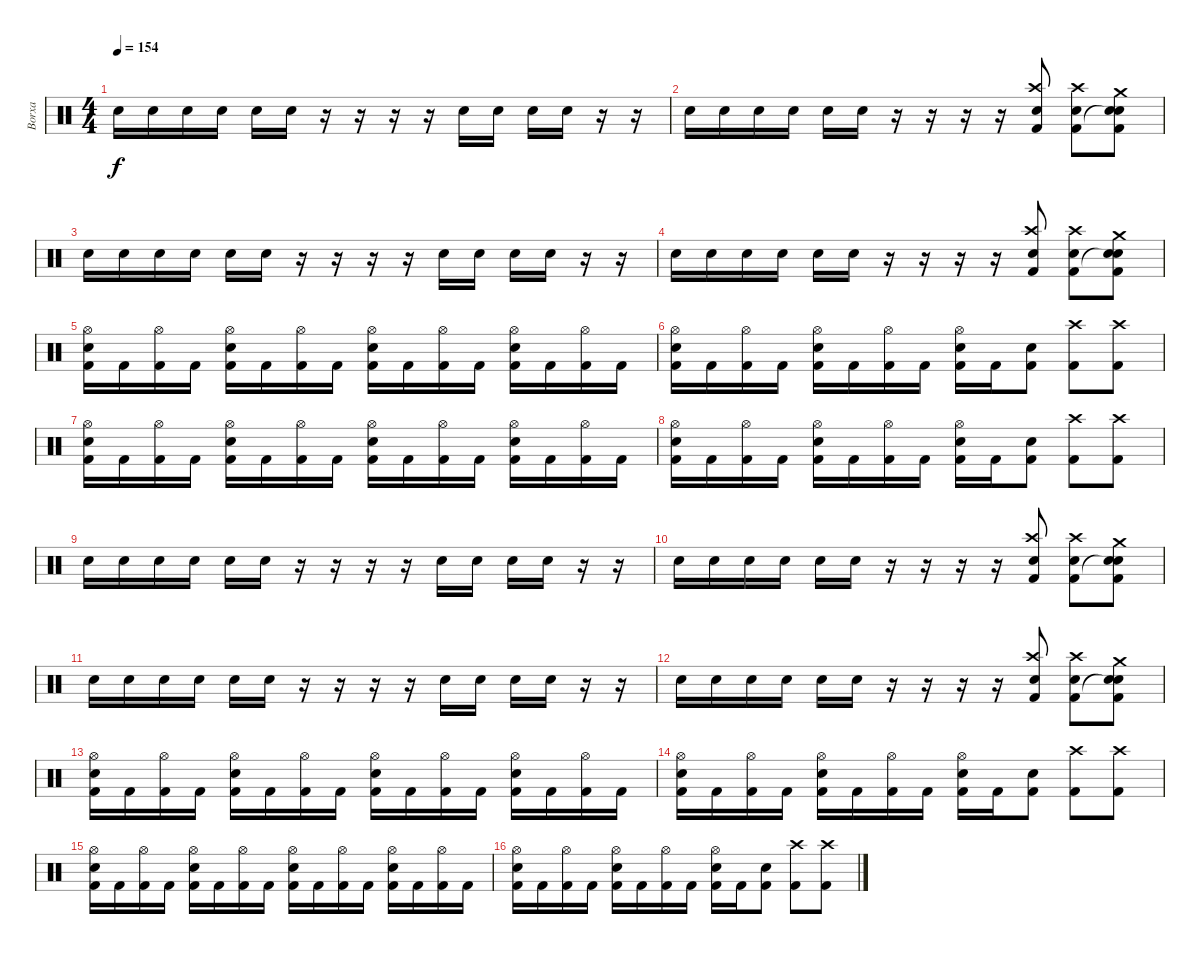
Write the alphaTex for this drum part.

\track ("Borxa" "Borxa") {instrument percussion}
\staff {score}
\articulation defaults
\ts (4 4)
\tempo 154
\clef neutral
\ks c "Snare (hit) 2".16{dy f} "Snare (hit) 2".16 "Snare (hit) 2".16 "Snare (hit) 2".16 "Snare (hit) 2".16 "Snare (hit) 2".16
r.16 r.16 r.16 r.16 "Snare (hit) 2".16 "Snare (hit) 2".16 "Snare (hit) 2".16 "Snare (hit) 2".16 r.16 r.16 |
"Snare (hit) 2".16 "Snare (hit) 2".16 "Snare (hit) 2".16 "Snare (hit) 2".16 "Snare (hit) 2".16 "Snare (hit) 2".16 r.16 r.16 r.16 r.16 ("Snare (hit) 2" "Crash high (hit)" "Kick (hit) 2").8 ("Snare (hit) 2" "Crash high (hit)" "Kick (hit) 2").8 ("Crash medium (hit)" "Snare (hit) 2" "Snare (hit)"{t} "Kick (hit) 2").8 |
"Snare (hit) 2".16 "Snare (hit) 2".16 "Snare (hit) 2".16 "Snare (hit) 2".16 "Snare (hit) 2".16 "Snare (hit) 2".16 r.16 r.16 r.16 r.16 "Snare (hit) 2".16 "Snare (hit) 2".16 "Snare (hit) 2".16 "Snare (hit) 2".16 r.16 r.16 |
"Snare (hit) 2".16 "Snare (hit) 2".16 "Snare (hit) 2".16 "Snare (hit) 2".16 "Snare (hit) 2".16 "Snare (hit) 2".16 r.16 r.16 r.16 r.16 ("Snare (hit) 2" "Crash high (hit)" "Kick (hit) 2").8 ("Snare (hit) 2" "Crash high (hit)" "Kick (hit) 2").8 ("Crash medium (hit)" "Snare (hit) 2" "Snare (hit)"{t} "Kick (hit) 2").8 |
("Hi-Hat (open)" "Snare (hit) 2" "Kick (hit) 2").16 "Kick (hit) 2".16 ("Hi-Hat (open)" "Kick (hit) 2").16 "Kick (hit) 2".16 ("Hi-Hat (open)" "Snare (hit) 2" "Kick (hit) 2").16 "Kick (hit) 2".16 ("Hi-Hat (open)" "Kick (hit) 2").16 "Kick (hit) 2".16 ("Hi-Hat (open)" "Snare (hit) 2" "Kick (hit) 2").16 "Kick (hit) 2".16 ("Hi-Hat (open)" "Kick (hit) 2").16 "Kick (hit) 2".16 ("Hi-Hat (open)" "Snare (hit) 2" "Kick (hit) 2").16 "Kick (hit) 2".16 ("Hi-Hat (open)" "Kick (hit) 2").16 "Kick (hit) 2".16 |
("Hi-Hat (open)" "Snare (hit) 2" "Kick (hit) 2").16 "Kick (hit) 2".16 ("Hi-Hat (open)" "Kick (hit) 2").16 "Kick (hit) 2".16 ("Hi-Hat (open)" "Snare (hit) 2" "Kick (hit) 2").16 "Kick (hit) 2".16 ("Hi-Hat (open)" "Kick (hit) 2").16 "Kick (hit) 2".16 ("Hi-Hat (open)" "Snare (hit) 2" "Kick (hit) 2").16 "Kick (hit) 2".16 ("Snare (hit) 2" "Kick (hit) 2").8 ("Crash high (hit)" "Kick (hit) 2").8 ("Crash high (hit)" "Kick (hit) 2").8 |
("Hi-Hat (open)" "Snare (hit) 2" "Kick (hit) 2").16 "Kick (hit) 2".16 ("Hi-Hat (open)" "Kick (hit) 2").16 "Kick (hit) 2".16 ("Hi-Hat (open)" "Snare (hit) 2" "Kick (hit) 2").16 "Kick (hit) 2".16 ("Hi-Hat (open)" "Kick (hit) 2").16 "Kick (hit) 2".16 ("Hi-Hat (open)" "Snare (hit) 2" "Kick (hit) 2").16 "Kick (hit) 2".16 ("Hi-Hat (open)" "Kick (hit) 2").16 "Kick (hit) 2".16 ("Hi-Hat (open)" "Snare (hit) 2" "Kick (hit) 2").16 "Kick (hit) 2".16 ("Hi-Hat (open)" "Kick (hit) 2").16 "Kick (hit) 2".16 |
("Hi-Hat (open)" "Snare (hit) 2" "Kick (hit) 2").16 "Kick (hit) 2".16 ("Hi-Hat (open)" "Kick (hit) 2").16 "Kick (hit) 2".16 ("Hi-Hat (open)" "Snare (hit) 2" "Kick (hit) 2").16 "Kick (hit) 2".16 ("Hi-Hat (open)" "Kick (hit) 2").16 "Kick (hit) 2".16 ("Hi-Hat (open)" "Snare (hit) 2" "Kick (hit) 2").16 "Kick (hit) 2".16 ("Snare (hit) 2" "Kick (hit) 2").8 ("Crash high (hit)" "Kick (hit) 2").8 ("Crash high (hit)" "Kick (hit) 2").8 |
"Snare (hit) 2".16 "Snare (hit) 2".16 "Snare (hit) 2".16 "Snare (hit) 2".16 "Snare (hit) 2".16 "Snare (hit) 2".16 r.16 r.16 r.16 r.16 "Snare (hit) 2".16 "Snare (hit) 2".16 "Snare (hit) 2".16 "Snare (hit) 2".16 r.16 r.16 |
"Snare (hit) 2".16 "Snare (hit) 2".16 "Snare (hit) 2".16 "Snare (hit) 2".16 "Snare (hit) 2".16 "Snare (hit) 2".16 r.16 r.16 r.16 r.16 ("Snare (hit) 2" "Crash high (hit)" "Kick (hit) 2").8 ("Snare (hit) 2" "Crash high (hit)" "Kick (hit) 2").8 ("Crash medium (hit)" "Snare (hit) 2" "Snare (hit)"{t} "Kick (hit) 2").8 |
"Snare (hit) 2".16 "Snare (hit) 2".16 "Snare (hit) 2".16 "Snare (hit) 2".16 "Snare (hit) 2".16 "Snare (hit) 2".16 r.16 r.16 r.16 r.16 "Snare (hit) 2".16 "Snare (hit) 2".16 "Snare (hit) 2".16 "Snare (hit) 2".16 r.16 r.16 |
"Snare (hit) 2".16 "Snare (hit) 2".16 "Snare (hit) 2".16 "Snare (hit) 2".16 "Snare (hit) 2".16 "Snare (hit) 2".16 r.16 r.16 r.16 r.16 ("Snare (hit) 2" "Crash high (hit)" "Kick (hit) 2").8 ("Snare (hit) 2" "Crash high (hit)" "Kick (hit) 2").8 ("Crash medium (hit)" "Snare (hit) 2" "Snare (hit)"{t} "Kick (hit) 2").8 |
("Hi-Hat (open)" "Snare (hit) 2" "Kick (hit) 2").16 "Kick (hit) 2".16 ("Hi-Hat (open)" "Kick (hit) 2").16 "Kick (hit) 2".16 ("Hi-Hat (open)" "Snare (hit) 2" "Kick (hit) 2").16 "Kick (hit) 2".16 ("Hi-Hat (open)" "Kick (hit) 2").16 "Kick (hit) 2".16 ("Hi-Hat (open)" "Snare (hit) 2" "Kick (hit) 2").16 "Kick (hit) 2".16 ("Hi-Hat (open)" "Kick (hit) 2").16 "Kick (hit) 2".16 ("Hi-Hat (open)" "Snare (hit) 2" "Kick (hit) 2").16 "Kick (hit) 2".16 ("Hi-Hat (open)" "Kick (hit) 2").16 "Kick (hit) 2".16 |
("Hi-Hat (open)" "Snare (hit) 2" "Kick (hit) 2").16 "Kick (hit) 2".16 ("Hi-Hat (open)" "Kick (hit) 2").16 "Kick (hit) 2".16 ("Hi-Hat (open)" "Snare (hit) 2" "Kick (hit) 2").16 "Kick (hit) 2".16 ("Hi-Hat (open)" "Kick (hit) 2").16 "Kick (hit) 2".16 ("Hi-Hat (open)" "Snare (hit) 2" "Kick (hit) 2").16 "Kick (hit) 2".16 ("Snare (hit) 2" "Kick (hit) 2").8 ("Crash high (hit)" "Kick (hit) 2").8 ("Crash high (hit)" "Kick (hit) 2").8 |
("Hi-Hat (open)" "Snare (hit) 2" "Kick (hit) 2").16 "Kick (hit) 2".16 ("Hi-Hat (open)" "Kick (hit) 2").16 "Kick (hit) 2".16 ("Hi-Hat (open)" "Snare (hit) 2" "Kick (hit) 2").16 "Kick (hit) 2".16 ("Hi-Hat (open)" "Kick (hit) 2").16 "Kick (hit) 2".16 ("Hi-Hat (open)" "Snare (hit) 2" "Kick (hit) 2").16 "Kick (hit) 2".16 ("Hi-Hat (open)" "Kick (hit) 2").16 "Kick (hit) 2".16 ("Hi-Hat (open)" "Snare (hit) 2" "Kick (hit) 2").16 "Kick (hit) 2".16 ("Hi-Hat (open)" "Kick (hit) 2").16 "Kick (hit) 2".16 |
("Hi-Hat (open)" "Snare (hit) 2" "Kick (hit) 2").16 "Kick (hit) 2".16 ("Hi-Hat (open)" "Kick (hit) 2").16 "Kick (hit) 2".16 ("Hi-Hat (open)" "Snare (hit) 2" "Kick (hit) 2").16 "Kick (hit) 2".16 ("Hi-Hat (open)" "Kick (hit) 2").16 "Kick (hit) 2".16 ("Hi-Hat (open)" "Snare (hit) 2" "Kick (hit) 2").16 "Kick (hit) 2".16 ("Snare (hit) 2" "Kick (hit) 2").8 ("Crash high (hit)" "Kick (hit) 2").8 ("Crash high (hit)" "Kick (hit) 2").8
